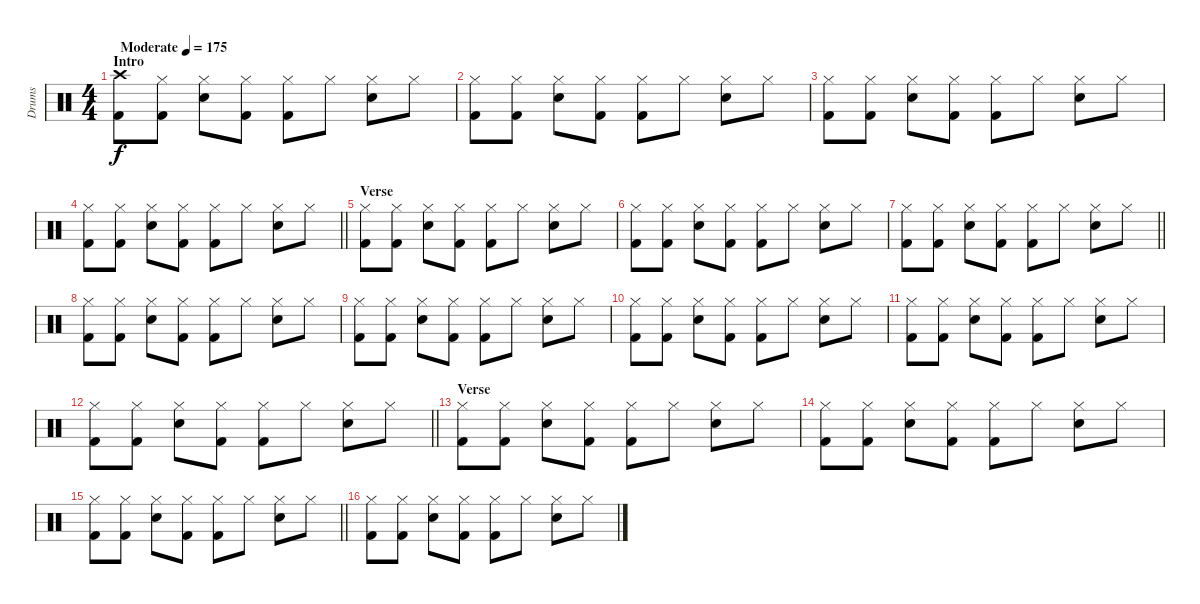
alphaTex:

\track ("Drums" "Drums") {instrument percussion}
\staff {score}
\articulation defaults
\ts (4 4)
\section ("" "Intro")
\tempo (175 "Moderate")
\clef neutral
\ks c
("Crash high (hit)" "Kick (hit) 2").8{dy f} ("Hi-Hat (closed)" "Kick (hit) 2").8 ("Hi-Hat (closed)" "Snare (hit) 2").8 ("Hi-Hat (closed)" "Kick (hit) 2").8 ("Hi-Hat (closed)" "Kick (hit) 2").8 "Hi-Hat (closed)".8 ("Hi-Hat (closed)" "Snare (hit) 2").8 "Hi-Hat (closed)".8 |
("Hi-Hat (closed)" "Kick (hit) 2").8 ("Hi-Hat (closed)" "Kick (hit) 2").8 ("Hi-Hat (closed)" "Snare (hit) 2").8 ("Hi-Hat (closed)" "Kick (hit) 2").8 ("Hi-Hat (closed)" "Kick (hit) 2").8 "Hi-Hat (closed)".8 ("Hi-Hat (closed)" "Snare (hit) 2").8 "Hi-Hat (closed)".8 |
("Hi-Hat (closed)" "Kick (hit) 2").8 ("Hi-Hat (closed)" "Kick (hit) 2").8 ("Hi-Hat (closed)" "Snare (hit) 2").8 ("Hi-Hat (closed)" "Kick (hit) 2").8 ("Hi-Hat (closed)" "Kick (hit) 2").8 "Hi-Hat (closed)".8 ("Hi-Hat (closed)" "Snare (hit) 2").8 "Hi-Hat (closed)".8 |
\barLineRight lightlight
("Hi-Hat (closed)" "Kick (hit) 2").8 ("Hi-Hat (closed)" "Kick (hit) 2").8 ("Hi-Hat (closed)" "Snare (hit) 2").8 ("Hi-Hat (closed)" "Kick (hit) 2").8 ("Hi-Hat (closed)" "Kick (hit) 2").8 "Hi-Hat (closed)".8 ("Hi-Hat (closed)" "Snare (hit) 2").8 "Hi-Hat (closed)".8 |
\section ("" "Verse")
("Hi-Hat (closed)" "Kick (hit) 2").8 ("Hi-Hat (closed)" "Kick (hit) 2").8 ("Hi-Hat (closed)" "Snare (hit) 2").8 ("Hi-Hat (closed)" "Kick (hit) 2").8 ("Hi-Hat (closed)" "Kick (hit) 2").8 "Hi-Hat (closed)".8 ("Hi-Hat (closed)" "Snare (hit) 2").8 "Hi-Hat (closed)".8 |
("Hi-Hat (closed)" "Kick (hit) 2").8 ("Hi-Hat (closed)" "Kick (hit) 2").8 ("Hi-Hat (closed)" "Snare (hit) 2").8 ("Hi-Hat (closed)" "Kick (hit) 2").8 ("Hi-Hat (closed)" "Kick (hit) 2").8 "Hi-Hat (closed)".8 ("Hi-Hat (closed)" "Snare (hit) 2").8 "Hi-Hat (closed)".8 |
\barLineRight lightlight
("Hi-Hat (closed)" "Kick (hit) 2").8 ("Hi-Hat (closed)" "Kick (hit) 2").8 ("Hi-Hat (closed)" "Snare (hit) 2").8 ("Hi-Hat (closed)" "Kick (hit) 2").8 ("Hi-Hat (closed)" "Kick (hit) 2").8 "Hi-Hat (closed)".8 ("Hi-Hat (closed)" "Snare (hit) 2").8 "Hi-Hat (closed)".8 |
\section ("" "")
("Hi-Hat (closed)" "Kick (hit) 2").8 ("Hi-Hat (closed)" "Kick (hit) 2").8 ("Hi-Hat (closed)" "Snare (hit) 2").8 ("Hi-Hat (closed)" "Kick (hit) 2").8 ("Hi-Hat (closed)" "Kick (hit) 2").8 "Hi-Hat (closed)".8 ("Hi-Hat (closed)" "Snare (hit) 2").8 "Hi-Hat (closed)".8 |
("Hi-Hat (closed)" "Kick (hit) 2").8 ("Hi-Hat (closed)" "Kick (hit) 2").8 ("Hi-Hat (closed)" "Snare (hit) 2").8 ("Hi-Hat (closed)" "Kick (hit) 2").8 ("Hi-Hat (closed)" "Kick (hit) 2").8 "Hi-Hat (closed)".8 ("Hi-Hat (closed)" "Snare (hit) 2").8 "Hi-Hat (closed)".8 |
("Hi-Hat (closed)" "Kick (hit) 2").8 ("Hi-Hat (closed)" "Kick (hit) 2").8 ("Hi-Hat (closed)" "Snare (hit) 2").8 ("Hi-Hat (closed)" "Kick (hit) 2").8 ("Hi-Hat (closed)" "Kick (hit) 2").8 "Hi-Hat (closed)".8 ("Hi-Hat (closed)" "Snare (hit) 2").8 "Hi-Hat (closed)".8 |
("Hi-Hat (closed)" "Kick (hit) 2").8 ("Hi-Hat (closed)" "Kick (hit) 2").8 ("Hi-Hat (closed)" "Snare (hit) 2").8 ("Hi-Hat (closed)" "Kick (hit) 2").8 ("Hi-Hat (closed)" "Kick (hit) 2").8 "Hi-Hat (closed)".8 ("Hi-Hat (closed)" "Snare (hit) 2").8 "Hi-Hat (closed)".8 |
\barLineRight lightlight
("Hi-Hat (closed)" "Kick (hit) 2").8 ("Hi-Hat (closed)" "Kick (hit) 2").8 ("Hi-Hat (closed)" "Snare (hit) 2").8 ("Hi-Hat (closed)" "Kick (hit) 2").8 ("Hi-Hat (closed)" "Kick (hit) 2").8 "Hi-Hat (closed)".8 ("Hi-Hat (closed)" "Snare (hit) 2").8 "Hi-Hat (closed)".8 |
\section ("" "Verse")
("Hi-Hat (closed)" "Kick (hit) 2").8 ("Hi-Hat (closed)" "Kick (hit) 2").8 ("Hi-Hat (closed)" "Snare (hit) 2").8 ("Hi-Hat (closed)" "Kick (hit) 2").8 ("Hi-Hat (closed)" "Kick (hit) 2").8 "Hi-Hat (closed)".8 ("Hi-Hat (closed)" "Snare (hit) 2").8 "Hi-Hat (closed)".8 |
("Hi-Hat (closed)" "Kick (hit) 2").8 ("Hi-Hat (closed)" "Kick (hit) 2").8 ("Hi-Hat (closed)" "Snare (hit) 2").8 ("Hi-Hat (closed)" "Kick (hit) 2").8 ("Hi-Hat (closed)" "Kick (hit) 2").8 "Hi-Hat (closed)".8 ("Hi-Hat (closed)" "Snare (hit) 2").8 "Hi-Hat (closed)".8 |
\barLineRight lightlight
("Hi-Hat (closed)" "Kick (hit) 2").8 ("Hi-Hat (closed)" "Kick (hit) 2").8 ("Hi-Hat (closed)" "Snare (hit) 2").8 ("Hi-Hat (closed)" "Kick (hit) 2").8 ("Hi-Hat (closed)" "Kick (hit) 2").8 "Hi-Hat (closed)".8 ("Hi-Hat (closed)" "Snare (hit) 2").8 "Hi-Hat (closed)".8 |
\section ("" "")
("Hi-Hat (closed)" "Kick (hit) 2").8 ("Hi-Hat (closed)" "Kick (hit) 2").8 ("Hi-Hat (closed)" "Snare (hit) 2").8 ("Hi-Hat (closed)" "Kick (hit) 2").8 ("Hi-Hat (closed)" "Kick (hit) 2").8 "Hi-Hat (closed)".8 ("Hi-Hat (closed)" "Snare (hit) 2").8 "Hi-Hat (closed)".8
